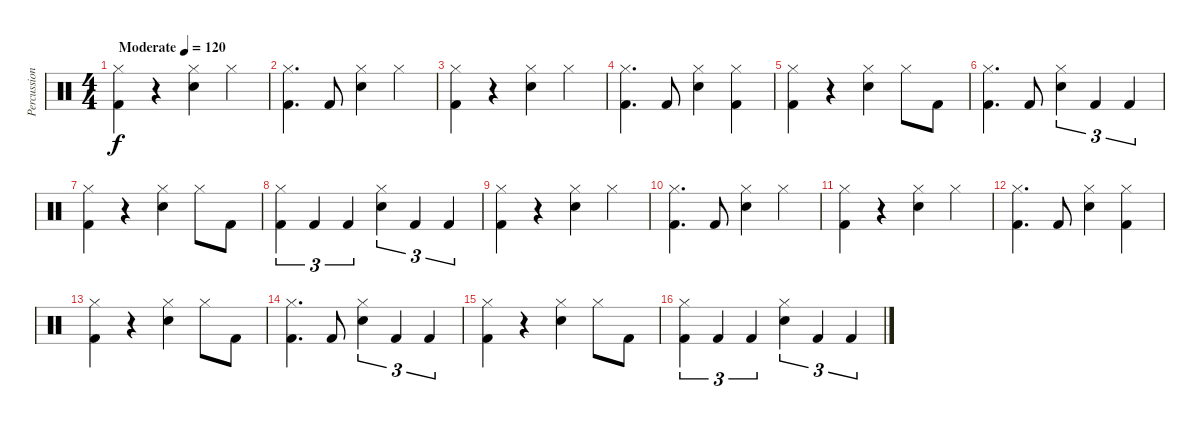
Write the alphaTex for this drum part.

\track ("Percussions" "Percussion") {instrument percussion}
\staff {score}
\articulation defaults
\ts (4 4)
\tempo (120 "Moderate")
\clef neutral
\ks c
("Hi-Hat (closed)" "Kick (hit) 2").4{dy f} r.4 ("Hi-Hat (closed)" "Snare (hit) 2").4 "Hi-Hat (closed)".4 |
("Hi-Hat (closed)" "Kick (hit) 2").4{d} "Kick (hit) 2".8 ("Hi-Hat (closed)" "Snare (hit) 2").4 "Hi-Hat (closed)".4 |
("Hi-Hat (closed)" "Kick (hit) 2").4 r.4 ("Hi-Hat (closed)" "Snare (hit) 2").4 "Hi-Hat (closed)".4 |
("Hi-Hat (closed)" "Kick (hit) 2").4{d} "Kick (hit) 2".8 ("Hi-Hat (closed)" "Snare (hit) 2").4 ("Hi-Hat (closed)" "Kick (hit) 2").4 |
("Hi-Hat (closed)" "Kick (hit) 2").4 r.4 ("Hi-Hat (closed)" "Snare (hit) 2").4 "Hi-Hat (closed)".8 "Kick (hit) 2".8 |
("Hi-Hat (closed)" "Kick (hit) 2").4{d} "Kick (hit) 2".8 ("Hi-Hat (closed)" "Snare (hit) 2").4{tu (3 2)} "Kick (hit) 2".4{tu (3 2)} "Kick (hit) 2".4{tu (3 2)} |
("Hi-Hat (closed)" "Kick (hit) 2").4 r.4 ("Hi-Hat (closed)" "Snare (hit) 2").4 "Hi-Hat (closed)".8 "Kick (hit) 2".8 |
("Hi-Hat (closed)" "Kick (hit) 2").4{tu (3 2)} "Kick (hit) 2".4{tu (3 2)} "Kick (hit) 2".4{tu (3 2)} ("Hi-Hat (closed)" "Snare (hit) 2").4{tu (3 2)} "Kick (hit) 2".4{tu (3 2)} "Kick (hit) 2".4{tu (3 2)} |
("Hi-Hat (closed)" "Kick (hit) 2").4 r.4 ("Hi-Hat (closed)" "Snare (hit) 2").4 "Hi-Hat (closed)".4 |
("Hi-Hat (closed)" "Kick (hit) 2").4{d} "Kick (hit) 2".8 ("Hi-Hat (closed)" "Snare (hit) 2").4 "Hi-Hat (closed)".4 |
("Hi-Hat (closed)" "Kick (hit) 2").4 r.4 ("Hi-Hat (closed)" "Snare (hit) 2").4 "Hi-Hat (closed)".4 |
("Hi-Hat (closed)" "Kick (hit) 2").4{d} "Kick (hit) 2".8 ("Hi-Hat (closed)" "Snare (hit) 2").4 ("Hi-Hat (closed)" "Kick (hit) 2").4 |
("Hi-Hat (closed)" "Kick (hit) 2").4 r.4 ("Hi-Hat (closed)" "Snare (hit) 2").4 "Hi-Hat (closed)".8 "Kick (hit) 2".8 |
("Hi-Hat (closed)" "Kick (hit) 2").4{d} "Kick (hit) 2".8 ("Hi-Hat (closed)" "Snare (hit) 2").4{tu (3 2)} "Kick (hit) 2".4{tu (3 2)} "Kick (hit) 2".4{tu (3 2)} |
("Hi-Hat (closed)" "Kick (hit) 2").4 r.4 ("Hi-Hat (closed)" "Snare (hit) 2").4 "Hi-Hat (closed)".8 "Kick (hit) 2".8 |
("Hi-Hat (closed)" "Kick (hit) 2").4{tu (3 2)} "Kick (hit) 2".4{tu (3 2)} "Kick (hit) 2".4{tu (3 2)} ("Hi-Hat (closed)" "Snare (hit) 2").4{tu (3 2)} "Kick (hit) 2".4{tu (3 2)} "Kick (hit) 2".4{tu (3 2)}
